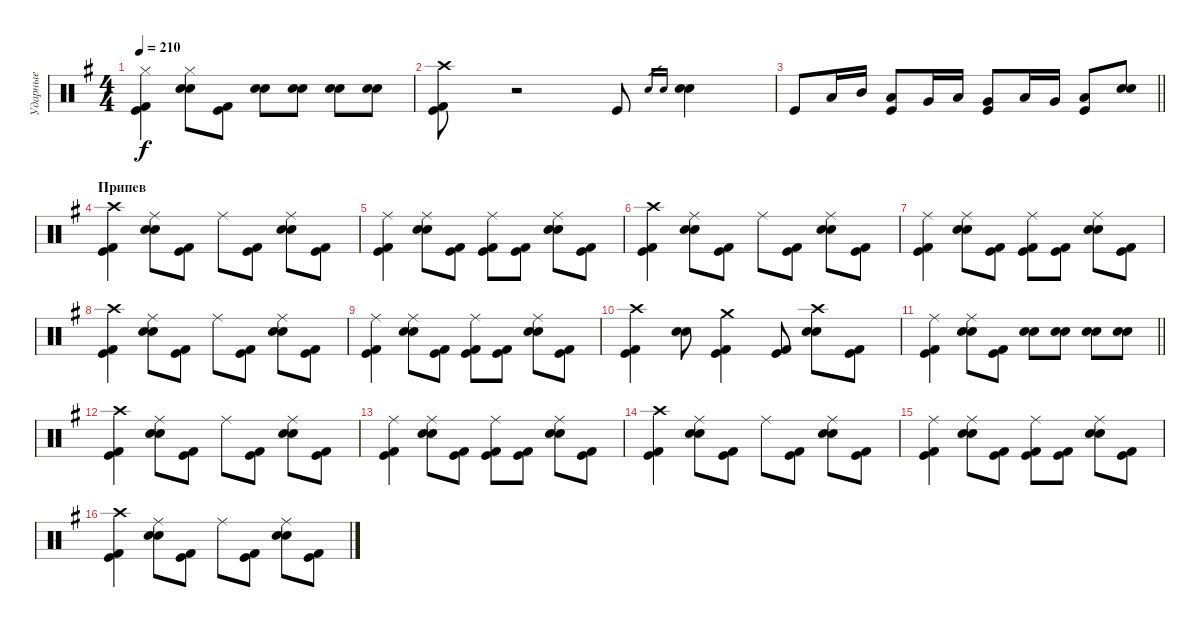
\track ("Ударные" "Ударные") {instrument percussion}
\staff {score}
\articulation defaults
\ts (4 4)
\tempo 210
\clef neutral
\ks g
("Hi-Hat (closed)" "Kick (hit) 2" "Kick (hit)").4{dy f} ("Hi-Hat (closed)" "Electric Snare (hit)" "Snare (hit) 2").8 ("Kick (hit) 2" "Kick (hit)").8 ("Electric Snare (hit)" "Snare (hit) 2").8 ("Electric Snare (hit)" "Snare (hit) 2").8 ("Electric Snare (hit)" "Snare (hit) 2").8 ("Electric Snare (hit)" "Snare (hit) 2").8 |
("Crash high (hit)" "Kick (hit) 2" "Kick (hit)").8 r.2 "Kick (hit)".8 "Electric Snare (hit)".16{gr} "Snare (hit) 2".16{gr} ("Electric Snare (hit)" "Snare (hit) 2").4 |
\barLineRight lightlight "Kick (hit)".8 "Low Tom (hit)".16 "Mid Tom (hit)".16
("Low Tom (hit)" "Kick (hit)").8 "Very Low Tom (hit)".16 "Low Tom (hit)".16 ("Very Low Tom (hit)" "Kick (hit)").8 "Low Floor Tom (hit)".16 "Very Low Tom (hit)".16 ("Low Floor Tom (hit)" "Kick (hit)").8 ("Electric Snare (hit)" "Snare (hit) 2").8 |
\section ("" "Припев")
("Crash high (hit)" "Kick (hit) 2" "Kick (hit)").4 ("Ride (middle)" "Electric Snare (hit)" "Snare (hit) 2").8 ("Kick (hit) 2" "Kick (hit)").8 "Ride (middle)".8 ("Kick (hit) 2" "Kick (hit)").8 ("Ride (middle)" "Electric Snare (hit)" "Snare (hit) 2").8 ("Kick (hit) 2" "Kick (hit)").8 |
("Ride (middle)" "Kick (hit) 2" "Kick (hit)").4 ("Ride (middle)" "Electric Snare (hit)" "Snare (hit) 2").8 ("Kick (hit) 2" "Kick (hit)").8 ("Ride (middle)" "Kick (hit) 2" "Kick (hit)").8 ("Kick (hit) 2" "Kick (hit)").8 ("Ride (middle)" "Electric Snare (hit)" "Snare (hit) 2").8 ("Kick (hit) 2" "Kick (hit)").8 |
("Crash high (hit)" "Kick (hit) 2" "Kick (hit)").4 ("Ride (middle)" "Electric Snare (hit)" "Snare (hit) 2").8 ("Kick (hit) 2" "Kick (hit)").8 "Ride (middle)".8 ("Kick (hit) 2" "Kick (hit)").8 ("Ride (middle)" "Electric Snare (hit)" "Snare (hit) 2").8 ("Kick (hit) 2" "Kick (hit)").8 |
("Ride (middle)" "Kick (hit) 2" "Kick (hit)").4 ("Ride (middle)" "Electric Snare (hit)" "Snare (hit) 2").8 ("Kick (hit) 2" "Kick (hit)").8 ("Ride (middle)" "Kick (hit) 2" "Kick (hit)").8 ("Kick (hit) 2" "Kick (hit)").8 ("Ride (middle)" "Electric Snare (hit)" "Snare (hit) 2").8 ("Kick (hit) 2" "Kick (hit)").8 |
("Crash high (hit)" "Kick (hit) 2" "Kick (hit)").4 ("Ride (middle)" "Electric Snare (hit)" "Snare (hit) 2").8 ("Kick (hit) 2" "Kick (hit)").8 "Ride (middle)".8 ("Kick (hit) 2" "Kick (hit)").8 ("Ride (middle)" "Electric Snare (hit)" "Snare (hit) 2").8 ("Kick (hit) 2" "Kick (hit)").8 |
("Ride (middle)" "Kick (hit) 2" "Kick (hit)").4 ("Ride (middle)" "Electric Snare (hit)" "Snare (hit) 2").8 ("Kick (hit) 2" "Kick (hit)").8 ("Ride (middle)" "Kick (hit) 2" "Kick (hit)").8 ("Kick (hit) 2" "Kick (hit)").8 ("Ride (middle)" "Electric Snare (hit)" "Snare (hit) 2").8 ("Kick (hit) 2" "Kick (hit)").8 |
("Crash high (hit)" "Kick (hit) 2" "Kick (hit)").4 ("Electric Snare (hit)" "Snare (hit) 2").8 ("Crash medium (hit)" "Kick (hit) 2" "Kick (hit)").4 ("Kick (hit) 2" "Kick (hit)").8 ("Crash high (hit)" "Electric Snare (hit)" "Snare (hit) 2").8 ("Kick (hit) 2" "Kick (hit)").8 |
\barLineRight lightlight
("Ride (middle)" "Kick (hit) 2" "Kick (hit)").4 ("Ride (middle)" "Electric Snare (hit)" "Snare (hit) 2").8 ("Kick (hit) 2" "Kick (hit)").8 ("Electric Snare (hit)" "Snare (hit) 2").8 ("Electric Snare (hit)" "Snare (hit) 2").8 ("Electric Snare (hit)" "Snare (hit) 2").8 ("Electric Snare (hit)" "Snare (hit) 2").8 |
("Crash high (hit)" "Kick (hit) 2" "Kick (hit)").4 ("Ride (middle)" "Electric Snare (hit)" "Snare (hit) 2").8 ("Kick (hit) 2" "Kick (hit)").8 "Ride (middle)".8 ("Kick (hit) 2" "Kick (hit)").8 ("Ride (middle)" "Electric Snare (hit)" "Snare (hit) 2").8 ("Kick (hit) 2" "Kick (hit)").8 |
("Ride (middle)" "Kick (hit) 2" "Kick (hit)").4 ("Ride (middle)" "Electric Snare (hit)" "Snare (hit) 2").8 ("Kick (hit) 2" "Kick (hit)").8 ("Ride (middle)" "Kick (hit) 2" "Kick (hit)").8 ("Kick (hit) 2" "Kick (hit)").8 ("Ride (middle)" "Electric Snare (hit)" "Snare (hit) 2").8 ("Kick (hit) 2" "Kick (hit)").8 |
("Crash high (hit)" "Kick (hit) 2" "Kick (hit)").4 ("Ride (middle)" "Electric Snare (hit)" "Snare (hit) 2").8 ("Kick (hit) 2" "Kick (hit)").8 "Ride (middle)".8 ("Kick (hit) 2" "Kick (hit)").8 ("Ride (middle)" "Electric Snare (hit)" "Snare (hit) 2").8 ("Kick (hit) 2" "Kick (hit)").8 |
("Ride (middle)" "Kick (hit) 2" "Kick (hit)").4 ("Ride (middle)" "Electric Snare (hit)" "Snare (hit) 2").8 ("Kick (hit) 2" "Kick (hit)").8 ("Ride (middle)" "Kick (hit) 2" "Kick (hit)").8 ("Kick (hit) 2" "Kick (hit)").8 ("Ride (middle)" "Electric Snare (hit)" "Snare (hit) 2").8 ("Kick (hit) 2" "Kick (hit)").8 |
("Crash high (hit)" "Kick (hit) 2" "Kick (hit)").4 ("Ride (middle)" "Electric Snare (hit)" "Snare (hit) 2").8 ("Kick (hit) 2" "Kick (hit)").8 "Ride (middle)".8 ("Kick (hit) 2" "Kick (hit)").8 ("Ride (middle)" "Electric Snare (hit)" "Snare (hit) 2").8 ("Kick (hit) 2" "Kick (hit)").8
